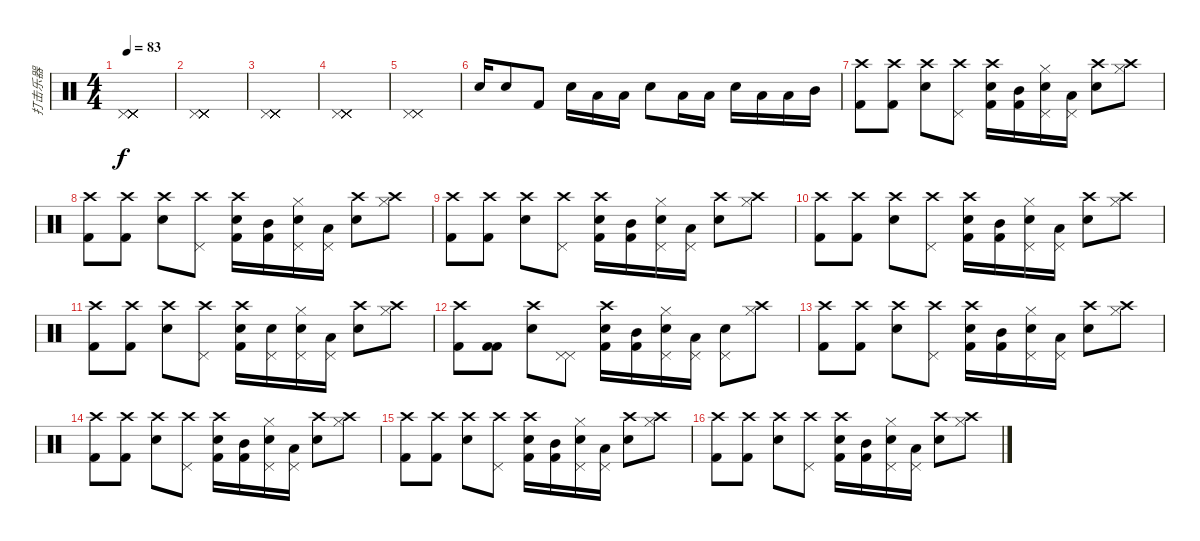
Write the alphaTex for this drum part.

\track ("打击乐器" "打击乐器") {instrument percussion}
\staff {score}
\articulation defaults
\ts (4 4)
\tempo 83
\clef neutral
\ks c
("Pedal Hi-Hat (hit)" "Pedal Hi-Hat (hit)" "Pedal Hi-Hat (hit)" "Pedal Hi-Hat (hit)" "Pedal Hi-Hat (hit)" "Pedal Hi-Hat (hit)").1{dy f} |
("Pedal Hi-Hat (hit)" "Pedal Hi-Hat (hit)" "Pedal Hi-Hat (hit)" "Pedal Hi-Hat (hit)" "Pedal Hi-Hat (hit)" "Pedal Hi-Hat (hit)").1 |
("Pedal Hi-Hat (hit)" "Pedal Hi-Hat (hit)" "Pedal Hi-Hat (hit)" "Pedal Hi-Hat (hit)" "Pedal Hi-Hat (hit)" "Pedal Hi-Hat (hit)").1 |
("Pedal Hi-Hat (hit)" "Pedal Hi-Hat (hit)" "Pedal Hi-Hat (hit)" "Pedal Hi-Hat (hit)" "Pedal Hi-Hat (hit)" "Pedal Hi-Hat (hit)").1 |
("Pedal Hi-Hat (hit)" "Pedal Hi-Hat (hit)" "Pedal Hi-Hat (hit)").1 |
"Snare (hit) 2".16 "Electric Snare (hit)".8 "Kick (hit) 2".8 "Electric Snare (hit)".16 "Low Floor Tom (hit)".16 "Low Floor Tom (hit)".16 "Electric Snare (hit)".8 "Low Tom (hit)".16 "Low Floor Tom (hit)".16 "Electric Snare (hit)".16 "Low Floor Tom (hit)".16 "Low Floor Tom (hit)".16 "Mid Tom (hit)".16 |
("Crash high (hit)" "Kick (hit) 2").8 ("Crash high (hit)" "Kick (hit) 2").8 ("Crash high (hit)" "Snare (hit) 2").8 ("Crash high (hit)" "Pedal Hi-Hat (hit)").8 ("Electric Snare (hit)" "Kick (hit) 2" "Crash high (hit)").16 ("Kick (hit) 2" "Mid Tom (hit)").16 ("Electric Snare (hit)" "Hi-Hat (closed)" "Pedal Hi-Hat (hit)").16 ("Pedal Hi-Hat (hit)" "Low Floor Tom (hit)").16 ("Crash high (hit)" "Snare (hit) 2").8 ("Crash high (hit)" "Hi-Hat (closed)").8 |
("Crash high (hit)" "Kick (hit) 2").8 ("Crash high (hit)" "Kick (hit) 2").8 ("Crash high (hit)" "Snare (hit) 2").8 ("Crash high (hit)" "Pedal Hi-Hat (hit)").8 ("Electric Snare (hit)" "Kick (hit) 2" "Crash high (hit)").16 ("Kick (hit) 2" "Mid Tom (hit)").16 ("Electric Snare (hit)" "Hi-Hat (closed)" "Pedal Hi-Hat (hit)").16 ("Pedal Hi-Hat (hit)" "Low Floor Tom (hit)").16 ("Crash high (hit)" "Snare (hit) 2").8 ("Crash high (hit)" "Hi-Hat (closed)").8 |
("Crash high (hit)" "Kick (hit) 2").8 ("Crash high (hit)" "Kick (hit) 2").8 ("Crash high (hit)" "Snare (hit) 2").8 ("Crash high (hit)" "Pedal Hi-Hat (hit)").8 ("Electric Snare (hit)" "Kick (hit) 2" "Crash high (hit)").16 ("Kick (hit) 2" "Mid Tom (hit)").16 ("Electric Snare (hit)" "Hi-Hat (closed)" "Pedal Hi-Hat (hit)").16 ("Pedal Hi-Hat (hit)" "Low Floor Tom (hit)").16 ("Crash high (hit)" "Snare (hit) 2").8 ("Crash high (hit)" "Hi-Hat (closed)").8 |
("Crash high (hit)" "Kick (hit) 2").8 ("Crash high (hit)" "Kick (hit) 2").8 ("Crash high (hit)" "Snare (hit) 2").8 ("Crash high (hit)" "Pedal Hi-Hat (hit)").8 ("Electric Snare (hit)" "Kick (hit) 2" "Crash high (hit)").16 ("Kick (hit) 2" "Mid Tom (hit)").16 ("Electric Snare (hit)" "Hi-Hat (closed)" "Pedal Hi-Hat (hit)").16 ("Pedal Hi-Hat (hit)" "Low Floor Tom (hit)").16 ("Crash high (hit)" "Snare (hit) 2").8 ("Crash high (hit)" "Hi-Hat (closed)").8 |
("Crash high (hit)" "Kick (hit) 2").8 ("Crash high (hit)" "Kick (hit) 2").8 ("Crash high (hit)" "Snare (hit) 2").8 ("Crash high (hit)" "Pedal Hi-Hat (hit)").8 ("Electric Snare (hit)" "Kick (hit) 2" "Crash high (hit)").16 ("Electric Snare (hit)" "Pedal Hi-Hat (hit)").16 ("Electric Snare (hit)" "Hi-Hat (closed)" "Pedal Hi-Hat (hit)").16 ("Pedal Hi-Hat (hit)" "Low Floor Tom (hit)").16 ("Crash high (hit)" "Snare (hit) 2").8 ("Crash high (hit)" "Hi-Hat (closed)").8 |
("Crash high (hit)" "Kick (hit) 2").8 ("Kick (hit) 2" "Kick (hit) 2").8 ("Crash high (hit)" "Snare (hit) 2").8 ("Pedal Hi-Hat (hit)" "Pedal Hi-Hat (hit)").8 ("Electric Snare (hit)" "Kick (hit) 2" "Crash high (hit)").16 ("Kick (hit) 2" "Mid Tom (hit)").16 ("Electric Snare (hit)" "Hi-Hat (closed)" "Pedal Hi-Hat (hit)").16 ("Pedal Hi-Hat (hit)" "Low Floor Tom (hit)").16 ("Pedal Hi-Hat (hit)" "Snare (hit) 2").8 ("Crash high (hit)" "Hi-Hat (closed)").8 |
("Crash high (hit)" "Kick (hit) 2").8 ("Crash high (hit)" "Kick (hit) 2").8 ("Crash high (hit)" "Snare (hit) 2").8 ("Crash high (hit)" "Pedal Hi-Hat (hit)").8 ("Electric Snare (hit)" "Kick (hit) 2" "Crash high (hit)").16 ("Kick (hit) 2" "Mid Tom (hit)").16 ("Electric Snare (hit)" "Hi-Hat (closed)" "Pedal Hi-Hat (hit)").16 ("Pedal Hi-Hat (hit)" "Low Floor Tom (hit)").16 ("Crash high (hit)" "Snare (hit) 2").8 ("Crash high (hit)" "Hi-Hat (closed)").8 |
("Crash high (hit)" "Kick (hit) 2").8 ("Crash high (hit)" "Kick (hit) 2").8 ("Crash high (hit)" "Snare (hit) 2").8 ("Crash high (hit)" "Pedal Hi-Hat (hit)").8 ("Electric Snare (hit)" "Kick (hit) 2" "Crash high (hit)").16 ("Kick (hit) 2" "Mid Tom (hit)").16 ("Electric Snare (hit)" "Hi-Hat (closed)" "Pedal Hi-Hat (hit)").16 ("Pedal Hi-Hat (hit)" "Low Floor Tom (hit)").16 ("Crash high (hit)" "Snare (hit) 2").8 ("Crash high (hit)" "Hi-Hat (closed)").8 |
("Crash high (hit)" "Kick (hit) 2").8 ("Crash high (hit)" "Kick (hit) 2").8 ("Crash high (hit)" "Snare (hit) 2").8 ("Crash high (hit)" "Pedal Hi-Hat (hit)").8 ("Electric Snare (hit)" "Kick (hit) 2" "Crash high (hit)").16 ("Kick (hit) 2" "Mid Tom (hit)").16 ("Electric Snare (hit)" "Hi-Hat (closed)" "Pedal Hi-Hat (hit)").16 ("Pedal Hi-Hat (hit)" "Low Floor Tom (hit)").16 ("Crash high (hit)" "Snare (hit) 2").8 ("Crash high (hit)" "Hi-Hat (closed)").8 |
("Crash high (hit)" "Kick (hit) 2").8 ("Crash high (hit)" "Kick (hit) 2").8 ("Crash high (hit)" "Snare (hit) 2").8 ("Crash high (hit)" "Pedal Hi-Hat (hit)").8 ("Electric Snare (hit)" "Kick (hit) 2" "Crash high (hit)").16 ("Kick (hit) 2" "Mid Tom (hit)").16 ("Electric Snare (hit)" "Hi-Hat (closed)" "Pedal Hi-Hat (hit)").16 ("Pedal Hi-Hat (hit)" "Low Floor Tom (hit)").16 ("Crash high (hit)" "Snare (hit) 2").8 ("Crash high (hit)" "Hi-Hat (closed)").8
